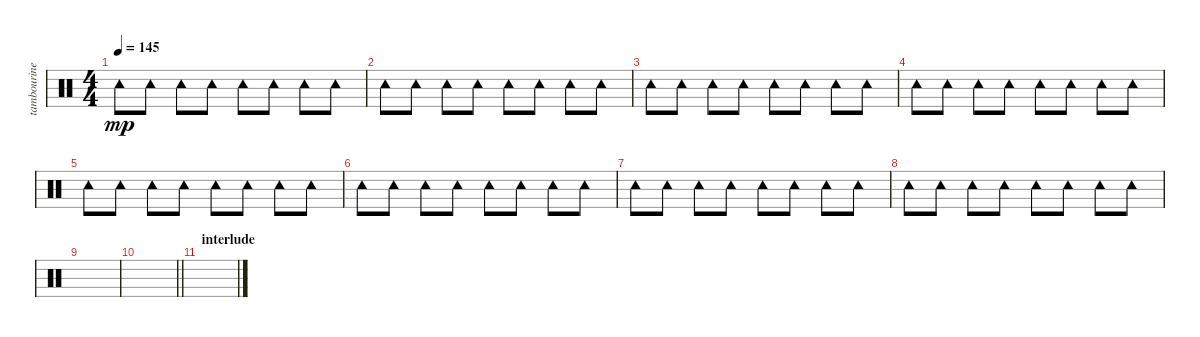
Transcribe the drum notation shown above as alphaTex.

\track ("tambourine" "tambourine") {instrument percussion}
\staff {score}
\articulation defaults
\ts (4 4)
\tempo 145
\clef neutral
\ks c "Tambourine (hit)".8{dy mp} "Tambourine (hit)".8 "Tambourine (hit)".8 "Tambourine (hit)".8 "Tambourine (hit)".8 "Tambourine (hit)".8 "Tambourine (hit)".8 "Tambourine (hit)".8
|
"Tambourine (hit)".8 "Tambourine (hit)".8 "Tambourine (hit)".8 "Tambourine (hit)".8 "Tambourine (hit)".8 "Tambourine (hit)".8 "Tambourine (hit)".8 "Tambourine (hit)".8 |
"Tambourine (hit)".8 "Tambourine (hit)".8 "Tambourine (hit)".8 "Tambourine (hit)".8 "Tambourine (hit)".8 "Tambourine (hit)".8 "Tambourine (hit)".8 "Tambourine (hit)".8 |
"Tambourine (hit)".8 "Tambourine (hit)".8 "Tambourine (hit)".8 "Tambourine (hit)".8 "Tambourine (hit)".8 "Tambourine (hit)".8 "Tambourine (hit)".8 "Tambourine (hit)".8 |
"Tambourine (hit)".8 "Tambourine (hit)".8 "Tambourine (hit)".8 "Tambourine (hit)".8 "Tambourine (hit)".8 "Tambourine (hit)".8 "Tambourine (hit)".8 "Tambourine (hit)".8 |
"Tambourine (hit)".8 "Tambourine (hit)".8 "Tambourine (hit)".8 "Tambourine (hit)".8 "Tambourine (hit)".8 "Tambourine (hit)".8 "Tambourine (hit)".8 "Tambourine (hit)".8 |
"Tambourine (hit)".8 "Tambourine (hit)".8 "Tambourine (hit)".8 "Tambourine (hit)".8 "Tambourine (hit)".8 "Tambourine (hit)".8 "Tambourine (hit)".8 "Tambourine (hit)".8 |
"Tambourine (hit)".8 "Tambourine (hit)".8 "Tambourine (hit)".8 "Tambourine (hit)".8 "Tambourine (hit)".8 "Tambourine (hit)".8 "Tambourine (hit)".8 "Tambourine (hit)".8 |
|
\barLineRight lightlight
|
\section ("" "interlude")
